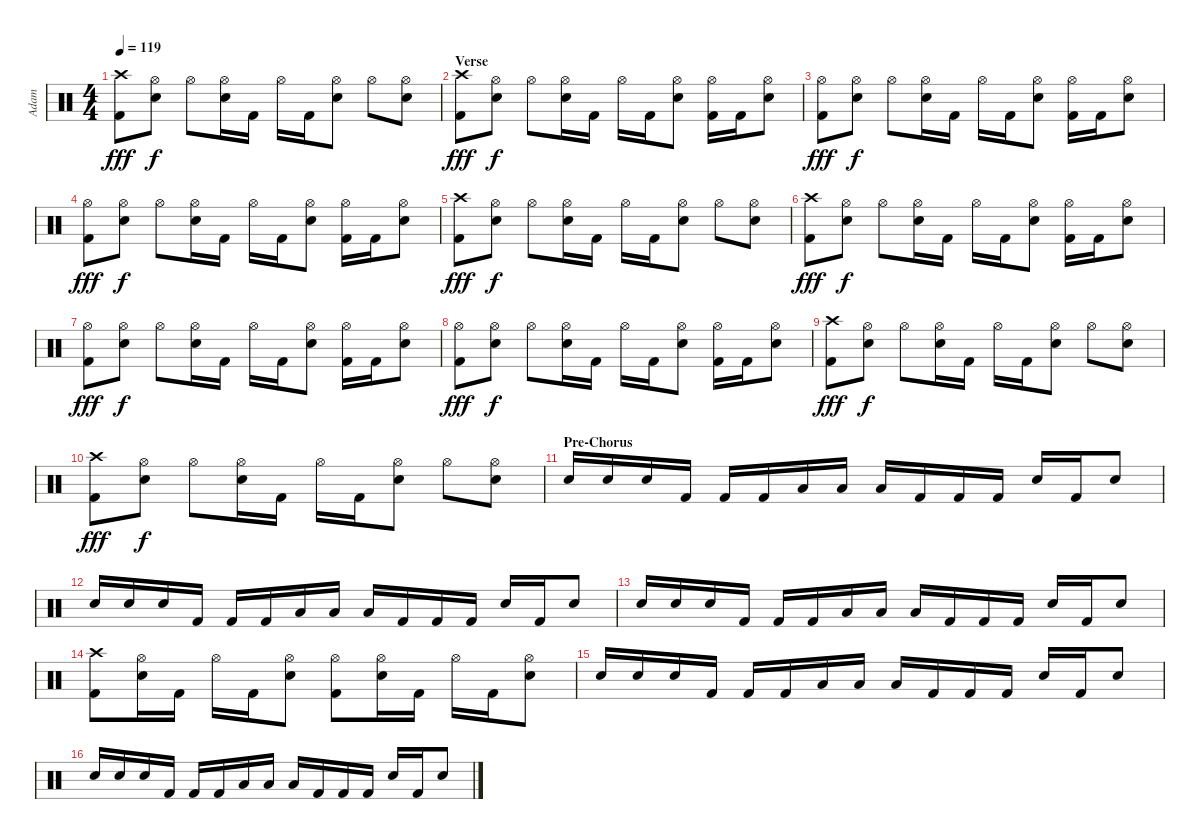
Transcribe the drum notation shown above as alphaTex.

\track ("Adam" "Adam") {instrument percussion}
\staff {score}
\articulation defaults
\ts (4 4)
\tempo 119
\clef neutral
\ks c
("Crash high (hit)" "Kick (hit) 2").8{dy fff} ("Hi-Hat (open)" "Electric Snare (hit)").8{dy f} "Hi-Hat (open)".8 ("Hi-Hat (open)" "Electric Snare (hit)").16 "Kick (hit) 2".16 "Hi-Hat (open)".16 "Kick (hit) 2".16 ("Hi-Hat (open)" "Electric Snare (hit)").8 "Hi-Hat (open)".8 ("Hi-Hat (open)" "Electric Snare (hit)").8 |
\section ("" "Verse")
("Crash high (hit)" "Kick (hit) 2").8{dy fff} ("Hi-Hat (open)" "Electric Snare (hit)").8{dy f} "Hi-Hat (open)".8 ("Hi-Hat (open)" "Electric Snare (hit)").16 "Kick (hit) 2".16 "Hi-Hat (open)".16 "Kick (hit) 2".16 ("Hi-Hat (open)" "Electric Snare (hit)").8 ("Hi-Hat (open)" "Kick (hit) 2").16 "Kick (hit) 2".16 ("Hi-Hat (open)" "Electric Snare (hit)").8 |
("Hi-Hat (open)" "Kick (hit) 2").8{dy fff} ("Hi-Hat (open)" "Electric Snare (hit)").8{dy f} "Hi-Hat (open)".8 ("Hi-Hat (open)" "Electric Snare (hit)").16 "Kick (hit) 2".16 "Hi-Hat (open)".16 "Kick (hit) 2".16 ("Hi-Hat (open)" "Electric Snare (hit)").8 ("Hi-Hat (open)" "Kick (hit) 2").16 "Kick (hit) 2".16 ("Hi-Hat (open)" "Electric Snare (hit)").8 |
("Hi-Hat (open)" "Kick (hit) 2").8{dy fff} ("Hi-Hat (open)" "Electric Snare (hit)").8{dy f} "Hi-Hat (open)".8 ("Hi-Hat (open)" "Electric Snare (hit)").16 "Kick (hit) 2".16 "Hi-Hat (open)".16 "Kick (hit) 2".16 ("Hi-Hat (open)" "Electric Snare (hit)").8 ("Hi-Hat (open)" "Kick (hit) 2").16 "Kick (hit) 2".16 ("Hi-Hat (open)" "Electric Snare (hit)").8 |
("Crash high (hit)" "Kick (hit) 2").8{dy fff} ("Hi-Hat (open)" "Electric Snare (hit)").8{dy f} "Hi-Hat (open)".8 ("Hi-Hat (open)" "Electric Snare (hit)").16 "Kick (hit) 2".16 "Hi-Hat (open)".16 "Kick (hit) 2".16 ("Hi-Hat (open)" "Electric Snare (hit)").8 "Hi-Hat (open)".8 ("Hi-Hat (open)" "Electric Snare (hit)").8 |
("Crash high (hit)" "Kick (hit) 2").8{dy fff} ("Hi-Hat (open)" "Electric Snare (hit)").8{dy f} "Hi-Hat (open)".8 ("Hi-Hat (open)" "Electric Snare (hit)").16 "Kick (hit) 2".16 "Hi-Hat (open)".16 "Kick (hit) 2".16 ("Hi-Hat (open)" "Electric Snare (hit)").8 ("Hi-Hat (open)" "Kick (hit) 2").16 "Kick (hit) 2".16 ("Hi-Hat (open)" "Electric Snare (hit)").8 |
("Hi-Hat (open)" "Kick (hit) 2").8{dy fff} ("Hi-Hat (open)" "Electric Snare (hit)").8{dy f} "Hi-Hat (open)".8 ("Hi-Hat (open)" "Electric Snare (hit)").16 "Kick (hit) 2".16 "Hi-Hat (open)".16 "Kick (hit) 2".16 ("Hi-Hat (open)" "Electric Snare (hit)").8 ("Hi-Hat (open)" "Kick (hit) 2").16 "Kick (hit) 2".16 ("Hi-Hat (open)" "Electric Snare (hit)").8 |
("Hi-Hat (open)" "Kick (hit) 2").8{dy fff} ("Hi-Hat (open)" "Electric Snare (hit)").8{dy f} "Hi-Hat (open)".8 ("Hi-Hat (open)" "Electric Snare (hit)").16 "Kick (hit) 2".16 "Hi-Hat (open)".16 "Kick (hit) 2".16 ("Hi-Hat (open)" "Electric Snare (hit)").8 ("Hi-Hat (open)" "Kick (hit) 2").16 "Kick (hit) 2".16 ("Hi-Hat (open)" "Electric Snare (hit)").8 |
("Crash high (hit)" "Kick (hit) 2").8{dy fff} ("Hi-Hat (open)" "Electric Snare (hit)").8{dy f} "Hi-Hat (open)".8 ("Hi-Hat (open)" "Electric Snare (hit)").16 "Kick (hit) 2".16 "Hi-Hat (open)".16 "Kick (hit) 2".16 ("Hi-Hat (open)" "Electric Snare (hit)").8 "Hi-Hat (open)".8 ("Hi-Hat (open)" "Electric Snare (hit)").8 |
("Crash high (hit)" "Kick (hit) 2").8{dy fff} ("Hi-Hat (open)" "Electric Snare (hit)").8{dy f} "Hi-Hat (open)".8 ("Hi-Hat (open)" "Electric Snare (hit)").16 "Kick (hit) 2".16 "Hi-Hat (open)".16 "Kick (hit) 2".16 ("Hi-Hat (open)" "Electric Snare (hit)").8 "Hi-Hat (open)".8 ("Hi-Hat (open)" "Electric Snare (hit)").8 |
\section ("" "Pre-Chorus")
"Electric Snare (hit)".16 "Electric Snare (hit)".16 "Electric Snare (hit)".16 "Kick (hit) 2".16 "Kick (hit) 2".16 "Kick (hit) 2".16 "Low Tom (hit)".16 "Low Tom (hit)".16 "Low Tom (hit)".16 "Kick (hit) 2".16 "Kick (hit) 2".16 "Kick (hit) 2".16 "Electric Snare (hit)".16 "Kick (hit) 2".16 "Electric Snare (hit)".8 |
"Electric Snare (hit)".16 "Electric Snare (hit)".16 "Electric Snare (hit)".16 "Kick (hit) 2".16 "Kick (hit) 2".16 "Kick (hit) 2".16 "Low Tom (hit)".16 "Low Tom (hit)".16 "Low Tom (hit)".16 "Kick (hit) 2".16 "Kick (hit) 2".16 "Kick (hit) 2".16 "Electric Snare (hit)".16 "Kick (hit) 2".16 "Electric Snare (hit)".8 |
"Electric Snare (hit)".16 "Electric Snare (hit)".16 "Electric Snare (hit)".16 "Kick (hit) 2".16 "Kick (hit) 2".16 "Kick (hit) 2".16 "Low Tom (hit)".16 "Low Tom (hit)".16 "Low Tom (hit)".16 "Kick (hit) 2".16 "Kick (hit) 2".16 "Kick (hit) 2".16 "Electric Snare (hit)".16 "Kick (hit) 2".16 "Electric Snare (hit)".8 |
("Crash high (hit)" "Kick (hit) 2").8 ("Hi-Hat (open)" "Electric Snare (hit)").16 "Kick (hit) 2".16 "Hi-Hat (open)".16 "Kick (hit) 2".16 ("Hi-Hat (open)" "Electric Snare (hit)").8 ("Hi-Hat (open)" "Kick (hit) 2").8 ("Hi-Hat (open)" "Electric Snare (hit)").16 "Kick (hit) 2".16 "Hi-Hat (open)".16 "Kick (hit) 2".16 ("Hi-Hat (open)" "Electric Snare (hit)").8 |
"Electric Snare (hit)".16 "Electric Snare (hit)".16 "Electric Snare (hit)".16 "Kick (hit) 2".16 "Kick (hit) 2".16 "Kick (hit) 2".16 "Low Tom (hit)".16 "Low Tom (hit)".16 "Low Tom (hit)".16 "Kick (hit) 2".16 "Kick (hit) 2".16 "Kick (hit) 2".16 "Electric Snare (hit)".16 "Kick (hit) 2".16 "Electric Snare (hit)".8 |
"Electric Snare (hit)".16 "Electric Snare (hit)".16 "Electric Snare (hit)".16 "Kick (hit) 2".16 "Kick (hit) 2".16 "Kick (hit) 2".16 "Low Tom (hit)".16 "Low Tom (hit)".16 "Low Tom (hit)".16 "Kick (hit) 2".16 "Kick (hit) 2".16 "Kick (hit) 2".16 "Electric Snare (hit)".16 "Kick (hit) 2".16 "Electric Snare (hit)".8
